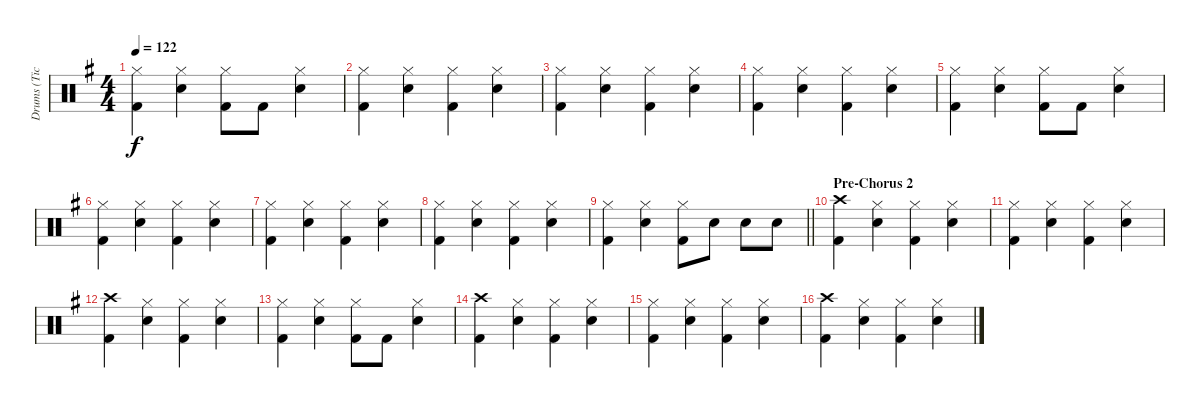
\track ("Drums (Tico Torres)" "Drums (Tic") {instrument percussion}
\staff {score}
\articulation defaults
\ts (4 4)
\tempo 122
\clef neutral
\ks eminor
("Hi-Hat (closed)" "Kick (hit) 2").4{dy f} ("Hi-Hat (closed)" "Snare (hit) 2").4 ("Hi-Hat (closed)" "Kick (hit) 2").8 "Kick (hit) 2".8 ("Hi-Hat (closed)" "Snare (hit) 2").4 |
("Hi-Hat (closed)" "Kick (hit) 2").4 ("Hi-Hat (closed)" "Snare (hit) 2").4 ("Hi-Hat (closed)" "Kick (hit) 2").4 ("Hi-Hat (closed)" "Snare (hit) 2").4 |
("Hi-Hat (closed)" "Kick (hit) 2").4 ("Hi-Hat (closed)" "Snare (hit) 2").4 ("Hi-Hat (closed)" "Kick (hit) 2").4 ("Hi-Hat (closed)" "Snare (hit) 2").4 |
("Hi-Hat (closed)" "Kick (hit) 2").4 ("Hi-Hat (closed)" "Snare (hit) 2").4 ("Hi-Hat (closed)" "Kick (hit) 2").4 ("Hi-Hat (closed)" "Snare (hit) 2").4 |
("Hi-Hat (closed)" "Kick (hit) 2").4 ("Hi-Hat (closed)" "Snare (hit) 2").4 ("Hi-Hat (closed)" "Kick (hit) 2").8 "Kick (hit) 2".8 ("Hi-Hat (closed)" "Snare (hit) 2").4 |
("Hi-Hat (closed)" "Kick (hit) 2").4 ("Hi-Hat (closed)" "Snare (hit) 2").4 ("Hi-Hat (closed)" "Kick (hit) 2").4 ("Hi-Hat (closed)" "Snare (hit) 2").4 |
("Hi-Hat (closed)" "Kick (hit) 2").4 ("Hi-Hat (closed)" "Snare (hit) 2").4 ("Hi-Hat (closed)" "Kick (hit) 2").4 ("Hi-Hat (closed)" "Snare (hit) 2").4 |
("Hi-Hat (closed)" "Kick (hit) 2").4 ("Hi-Hat (closed)" "Snare (hit) 2").4 ("Hi-Hat (closed)" "Kick (hit) 2").4 ("Hi-Hat (closed)" "Snare (hit) 2").4 |
\barLineRight lightlight
("Hi-Hat (closed)" "Kick (hit) 2").4 ("Hi-Hat (closed)" "Snare (hit) 2").4 ("Hi-Hat (closed)" "Kick (hit) 2").8 "Snare (hit) 2".8 "Snare (hit) 2".8 "Snare (hit) 2".8 |
\section ("" "Pre-Chorus 2")
("Crash high (hit)" "Kick (hit) 2").4 ("Hi-Hat (closed)" "Snare (hit) 2").4 ("Hi-Hat (closed)" "Kick (hit) 2").4 ("Hi-Hat (closed)" "Snare (hit) 2").4 |
("Hi-Hat (closed)" "Kick (hit) 2").4 ("Hi-Hat (closed)" "Snare (hit) 2").4 ("Hi-Hat (closed)" "Kick (hit) 2").4 ("Hi-Hat (closed)" "Snare (hit) 2").4 |
("Crash high (hit)" "Kick (hit) 2").4 ("Hi-Hat (closed)" "Snare (hit) 2").4 ("Hi-Hat (closed)" "Kick (hit) 2").4 ("Hi-Hat (closed)" "Snare (hit) 2").4 |
("Hi-Hat (closed)" "Kick (hit) 2").4 ("Hi-Hat (closed)" "Snare (hit) 2").4 ("Hi-Hat (closed)" "Kick (hit) 2").8 "Kick (hit) 2".8 ("Hi-Hat (closed)" "Snare (hit) 2").4 |
("Crash high (hit)" "Kick (hit) 2").4 ("Hi-Hat (closed)" "Snare (hit) 2").4 ("Hi-Hat (closed)" "Kick (hit) 2").4 ("Hi-Hat (closed)" "Snare (hit) 2").4 |
("Hi-Hat (closed)" "Kick (hit) 2").4 ("Hi-Hat (closed)" "Snare (hit) 2").4 ("Hi-Hat (closed)" "Kick (hit) 2").4 ("Hi-Hat (closed)" "Snare (hit) 2").4 |
("Crash high (hit)" "Kick (hit) 2").4 ("Hi-Hat (closed)" "Snare (hit) 2").4 ("Hi-Hat (closed)" "Kick (hit) 2").4 ("Hi-Hat (closed)" "Snare (hit) 2").4
